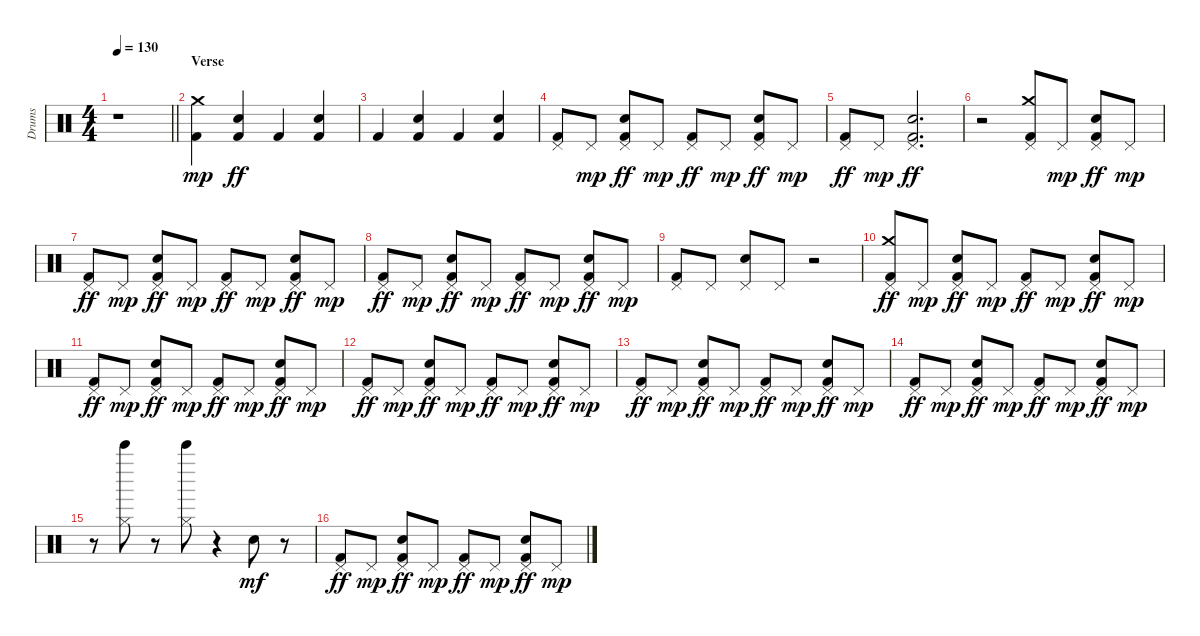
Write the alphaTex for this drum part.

\track ("Drums" "Drums") {instrument percussion}
\staff {score}
\articulation defaults
\ts (4 4)
\tempo 130
\clef neutral
\barLineRight lightlight
\ks c
r.1{dy mp} |
\section ("" "Verse")
("Kick (hit) 2" "Crash medium (hit)").4 ("Electric Snare (hit)" "Kick (hit) 2").4{dy ff} "Kick (hit) 2".4 ("Electric Snare (hit)" "Kick (hit) 2").4 |
"Kick (hit) 2".4 ("Electric Snare (hit)" "Kick (hit) 2").4 "Kick (hit) 2".4 ("Electric Snare (hit)" "Kick (hit) 2").4 |
("Pedal Hi-Hat (hit)" "Kick (hit) 2").8 "Pedal Hi-Hat (hit)".8{dy mp} ("Electric Snare (hit)" "Pedal Hi-Hat (hit)" "Kick (hit) 2").8{dy ff} "Pedal Hi-Hat (hit)".8{dy mp} ("Pedal Hi-Hat (hit)" "Kick (hit) 2").8{dy ff} "Pedal Hi-Hat (hit)".8{dy mp} ("Electric Snare (hit)" "Pedal Hi-Hat (hit)" "Kick (hit) 2").8{dy ff} "Pedal Hi-Hat (hit)".8{dy mp} |
("Pedal Hi-Hat (hit)" "Kick (hit) 2").8{dy ff} "Pedal Hi-Hat (hit)".8{dy mp} ("Electric Snare (hit)" "Pedal Hi-Hat (hit)" "Kick (hit) 2").2{d dy ff} |
r.2 ("Crash medium (hit)" "Pedal Hi-Hat (hit)" "Kick (hit) 2").8 "Pedal Hi-Hat (hit)".8{dy mp} ("Electric Snare (hit)" "Pedal Hi-Hat (hit)" "Kick (hit) 2").8{dy ff} "Pedal Hi-Hat (hit)".8{dy mp} |
("Pedal Hi-Hat (hit)" "Kick (hit) 2").8{dy ff} "Pedal Hi-Hat (hit)".8{dy mp} ("Electric Snare (hit)" "Pedal Hi-Hat (hit)" "Kick (hit) 2").8{dy ff} "Pedal Hi-Hat (hit)".8{dy mp} ("Pedal Hi-Hat (hit)" "Kick (hit) 2").8{dy ff} "Pedal Hi-Hat (hit)".8{dy mp} ("Electric Snare (hit)" "Pedal Hi-Hat (hit)" "Kick (hit) 2").8{dy ff} "Pedal Hi-Hat (hit)".8{dy mp} |
("Pedal Hi-Hat (hit)" "Kick (hit) 2").8{dy ff} "Pedal Hi-Hat (hit)".8{dy mp} ("Electric Snare (hit)" "Pedal Hi-Hat (hit)" "Kick (hit) 2").8{dy ff} "Pedal Hi-Hat (hit)".8{dy mp} ("Pedal Hi-Hat (hit)" "Kick (hit) 2").8{dy ff} "Pedal Hi-Hat (hit)".8{dy mp} ("Electric Snare (hit)" "Pedal Hi-Hat (hit)" "Kick (hit) 2").8{dy ff} "Pedal Hi-Hat (hit)".8{dy mp} |
("Kick (hit) 2" "Pedal Hi-Hat (hit)").8 "Pedal Hi-Hat (hit)".8 ("Electric Snare (hit)" "Pedal Hi-Hat (hit)").8 "Pedal Hi-Hat (hit)".8 r.2 |
("Crash medium (hit)" "Pedal Hi-Hat (hit)" "Kick (hit) 2").8{dy ff} "Pedal Hi-Hat (hit)".8{dy mp} ("Electric Snare (hit)" "Pedal Hi-Hat (hit)" "Kick (hit) 2").8{dy ff} "Pedal Hi-Hat (hit)".8{dy mp} ("Pedal Hi-Hat (hit)" "Kick (hit) 2").8{dy ff} "Pedal Hi-Hat (hit)".8{dy mp} ("Electric Snare (hit)" "Pedal Hi-Hat (hit)" "Kick (hit) 2").8{dy ff} "Pedal Hi-Hat (hit)".8{dy mp} |
("Pedal Hi-Hat (hit)" "Kick (hit) 2").8{dy ff} "Pedal Hi-Hat (hit)".8{dy mp} ("Electric Snare (hit)" "Pedal Hi-Hat (hit)" "Kick (hit) 2").8{dy ff} "Pedal Hi-Hat (hit)".8{dy mp} ("Pedal Hi-Hat (hit)" "Kick (hit) 2").8{dy ff} "Pedal Hi-Hat (hit)".8{dy mp} ("Electric Snare (hit)" "Pedal Hi-Hat (hit)" "Kick (hit) 2").8{dy ff} "Pedal Hi-Hat (hit)".8{dy mp} |
("Pedal Hi-Hat (hit)" "Kick (hit) 2").8{dy ff} "Pedal Hi-Hat (hit)".8{dy mp} ("Electric Snare (hit)" "Pedal Hi-Hat (hit)" "Kick (hit) 2").8{dy ff} "Pedal Hi-Hat (hit)".8{dy mp} ("Pedal Hi-Hat (hit)" "Kick (hit) 2").8{dy ff} "Pedal Hi-Hat (hit)".8{dy mp} ("Electric Snare (hit)" "Pedal Hi-Hat (hit)" "Kick (hit) 2").8{dy ff} "Pedal Hi-Hat (hit)".8{dy mp} |
("Pedal Hi-Hat (hit)" "Kick (hit) 2").8{dy ff} "Pedal Hi-Hat (hit)".8{dy mp} ("Electric Snare (hit)" "Pedal Hi-Hat (hit)" "Kick (hit) 2").8{dy ff} "Pedal Hi-Hat (hit)".8{dy mp} ("Pedal Hi-Hat (hit)" "Kick (hit) 2").8{dy ff} "Pedal Hi-Hat (hit)".8{dy mp} ("Electric Snare (hit)" "Pedal Hi-Hat (hit)" "Kick (hit) 2").8{dy ff} "Pedal Hi-Hat (hit)".8{dy mp} |
("Pedal Hi-Hat (hit)" "Kick (hit) 2").8{dy ff} "Pedal Hi-Hat (hit)".8{dy mp} ("Electric Snare (hit)" "Pedal Hi-Hat (hit)" "Kick (hit) 2").8{dy ff} "Pedal Hi-Hat (hit)".8{dy mp} ("Pedal Hi-Hat (hit)" "Kick (hit) 2").8{dy ff} "Pedal Hi-Hat (hit)".8{dy mp} ("Electric Snare (hit)" "Pedal Hi-Hat (hit)" "Kick (hit) 2").8{dy ff} "Pedal Hi-Hat (hit)".8{dy mp} |
r.8 ("Bell Tree (hit)" "Hi-Hat (closed)").8 r.8 ("Bell Tree (hit)" "Hi-Hat (closed)").8 r.4 "Snare (hit) 2".8{dy mf} r.8 |
("Pedal Hi-Hat (hit)" "Kick (hit) 2").8{dy ff} "Pedal Hi-Hat (hit)".8{dy mp} ("Electric Snare (hit)" "Pedal Hi-Hat (hit)" "Kick (hit) 2").8{dy ff} "Pedal Hi-Hat (hit)".8{dy mp} ("Pedal Hi-Hat (hit)" "Kick (hit) 2").8{dy ff} "Pedal Hi-Hat (hit)".8{dy mp} ("Electric Snare (hit)" "Pedal Hi-Hat (hit)" "Kick (hit) 2").8{dy ff} "Pedal Hi-Hat (hit)".8{dy mp}
